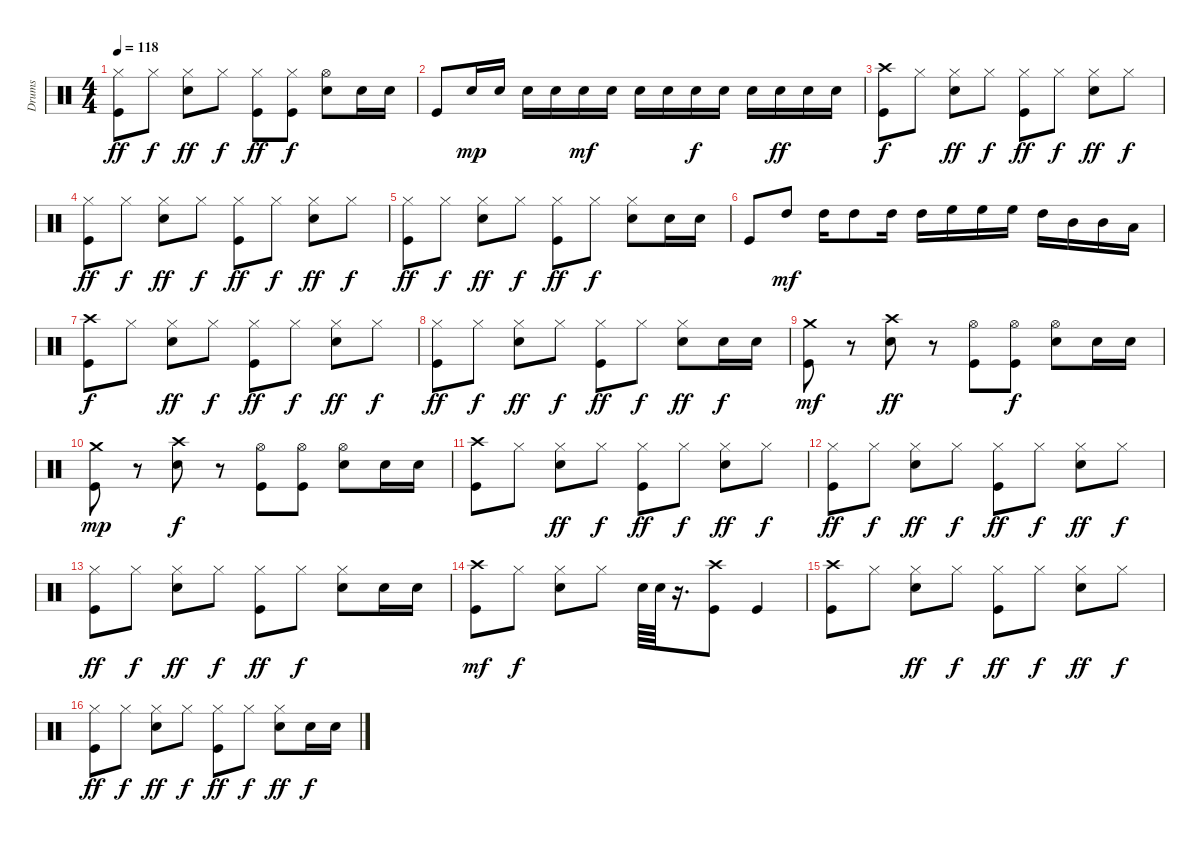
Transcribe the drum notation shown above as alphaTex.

\track ("Drums" "Drums") {instrument percussion}
\staff {score}
\articulation defaults
\ts (4 4)
\tempo 118
\clef neutral
\ks c
("Hi-Hat (closed)" "Kick (hit)").8{dy ff} "Hi-Hat (closed)".8{dy f} ("Hi-Hat (closed)" "Snare (hit) 2").8{dy ff} "Hi-Hat (closed)".8{dy f} ("Hi-Hat (closed)" "Kick (hit)").8{dy ff} ("Hi-Hat (closed)" "Kick (hit)").8{dy f} ("Hi-Hat (open)" "Snare (hit) 2").8 "Snare (hit) 2".16 "Snare (hit) 2".16 |
"Kick (hit)".8 "Snare (hit) 2".16{dy mp} "Snare (hit) 2".16 "Snare (hit) 2".16 "Snare (hit) 2".16 "Snare (hit) 2".16{dy mf} "Snare (hit) 2".16 "Snare (hit) 2".16 "Snare (hit) 2".16 "Snare (hit) 2".16{dy f} "Snare (hit) 2".16 "Snare (hit) 2".16 "Snare (hit) 2".16{dy ff} "Snare (hit) 2".16 "Snare (hit) 2".16 |
("Crash high (hit)" "Kick (hit)").8{dy f} "Hi-Hat (closed)".8 ("Hi-Hat (closed)" "Snare (hit) 2").8{dy ff} "Hi-Hat (closed)".8{dy f} ("Hi-Hat (closed)" "Kick (hit)").8{dy ff} "Hi-Hat (closed)".8{dy f} ("Hi-Hat (closed)" "Snare (hit) 2").8{dy ff} "Hi-Hat (closed)".8{dy f} |
("Hi-Hat (closed)" "Kick (hit)").8{dy ff} "Hi-Hat (closed)".8{dy f} ("Hi-Hat (closed)" "Snare (hit) 2").8{dy ff} "Hi-Hat (closed)".8{dy f} ("Hi-Hat (closed)" "Kick (hit)").8{dy ff} "Hi-Hat (closed)".8{dy f} ("Hi-Hat (closed)" "Snare (hit) 2").8{dy ff} "Hi-Hat (closed)".8{dy f} |
("Hi-Hat (closed)" "Kick (hit)").8{dy ff} "Hi-Hat (closed)".8{dy f} ("Hi-Hat (closed)" "Snare (hit) 2").8{dy ff} "Hi-Hat (closed)".8{dy f} ("Hi-Hat (closed)" "Kick (hit)").8{dy ff} "Hi-Hat (closed)".8{dy f} ("Hi-Hat (closed)" "Snare (hit) 2").8 "Snare (hit) 2".16 "Snare (hit) 2".16 |
"Kick (hit)".8 "High Tom (hit)".8{dy mf} "High Tom (hit)".16 "High Tom (hit)".8 "High Tom (hit)".16 "High Tom (hit)".16 "High Floor Tom (hit)".16 "High Floor Tom (hit)".16 "High Floor Tom (hit)".16 "High Tom (hit)".16 "Mid Tom (hit)".16 "Mid Tom (hit)".16 "Low Tom (hit)".16 |
("Crash high (hit)" "Kick (hit)").8{dy f} "Hi-Hat (closed)".8 ("Hi-Hat (closed)" "Snare (hit) 2").8{dy ff} "Hi-Hat (closed)".8{dy f} ("Hi-Hat (closed)" "Kick (hit)").8{dy ff} "Hi-Hat (closed)".8{dy f} ("Hi-Hat (closed)" "Snare (hit) 2").8{dy ff} "Hi-Hat (closed)".8{dy f} |
("Hi-Hat (closed)" "Kick (hit)").8{dy ff} "Hi-Hat (closed)".8{dy f} ("Hi-Hat (closed)" "Snare (hit) 2").8{dy ff} "Hi-Hat (closed)".8{dy f} ("Hi-Hat (closed)" "Kick (hit)").8{dy ff} "Hi-Hat (closed)".8{dy f} ("Hi-Hat (closed)" "Snare (hit) 2").8{dy ff} "Snare (hit) 2".16{dy f} "Snare (hit) 2".16 |
("Crash medium (hit)" "Kick (hit)").8{dy mf} r.8 ("Crash high (hit)" "Snare (hit) 2").8{dy ff} r.8 ("Hi-Hat (open)" "Kick (hit)").8 ("Hi-Hat (open)" "Kick (hit)").8{dy f} ("Hi-Hat (open)" "Snare (hit) 2").8 "Snare (hit) 2".16 "Snare (hit) 2".16 |
("Crash medium (hit)" "Kick (hit)").8{dy mp} r.8 ("Crash high (hit)" "Snare (hit) 2").8{dy f} r.8 ("Hi-Hat (open)" "Kick (hit)").8 ("Hi-Hat (open)" "Kick (hit)").8 ("Hi-Hat (open)" "Snare (hit) 2").8 "Snare (hit) 2".16 "Snare (hit) 2".16 |
("Crash high (hit)" "Kick (hit)").8 "Hi-Hat (closed)".8 ("Hi-Hat (closed)" "Snare (hit) 2").8{dy ff} "Hi-Hat (closed)".8{dy f} ("Hi-Hat (closed)" "Kick (hit)").8{dy ff} "Hi-Hat (closed)".8{dy f} ("Hi-Hat (closed)" "Snare (hit) 2").8{dy ff} "Hi-Hat (closed)".8{dy f} |
("Hi-Hat (closed)" "Kick (hit)").8{dy ff} "Hi-Hat (closed)".8{dy f} ("Hi-Hat (closed)" "Snare (hit) 2").8{dy ff} "Hi-Hat (closed)".8{dy f} ("Hi-Hat (closed)" "Kick (hit)").8{dy ff} "Hi-Hat (closed)".8{dy f} ("Hi-Hat (closed)" "Snare (hit) 2").8{dy ff} "Hi-Hat (closed)".8{dy f} |
("Hi-Hat (closed)" "Kick (hit)").8{dy ff} "Hi-Hat (closed)".8{dy f} ("Hi-Hat (closed)" "Snare (hit) 2").8{dy ff} "Hi-Hat (closed)".8{dy f} ("Hi-Hat (closed)" "Kick (hit)").8{dy ff} "Hi-Hat (closed)".8{dy f} ("Hi-Hat (closed)" "Snare (hit) 2").8 "Snare (hit) 2".16 "Snare (hit) 2".16 |
("Crash high (hit)" "Kick (hit)").8{dy mf} "Hi-Hat (closed)".8{dy f} ("Hi-Hat (closed)" "Snare (hit) 2").8 "Hi-Hat (closed)".8 "Snare (hit) 2".64 "Snare (hit) 2".64 r.16{d} ("Crash high (hit)" "Kick (hit)").8 "Kick (hit)".4 |
("Crash high (hit)" "Kick (hit)").8 "Hi-Hat (closed)".8 ("Hi-Hat (closed)" "Snare (hit) 2").8{dy ff} "Hi-Hat (closed)".8{dy f} ("Hi-Hat (closed)" "Kick (hit)").8{dy ff} "Hi-Hat (closed)".8{dy f} ("Hi-Hat (closed)" "Snare (hit) 2").8{dy ff} "Hi-Hat (closed)".8{dy f} |
("Hi-Hat (closed)" "Kick (hit)").8{dy ff} "Hi-Hat (closed)".8{dy f} ("Hi-Hat (closed)" "Snare (hit) 2").8{dy ff} "Hi-Hat (closed)".8{dy f} ("Hi-Hat (closed)" "Kick (hit)").8{dy ff} "Hi-Hat (closed)".8{dy f} ("Hi-Hat (closed)" "Snare (hit) 2").8{dy ff} "Snare (hit) 2".16{dy f} "Snare (hit) 2".16
